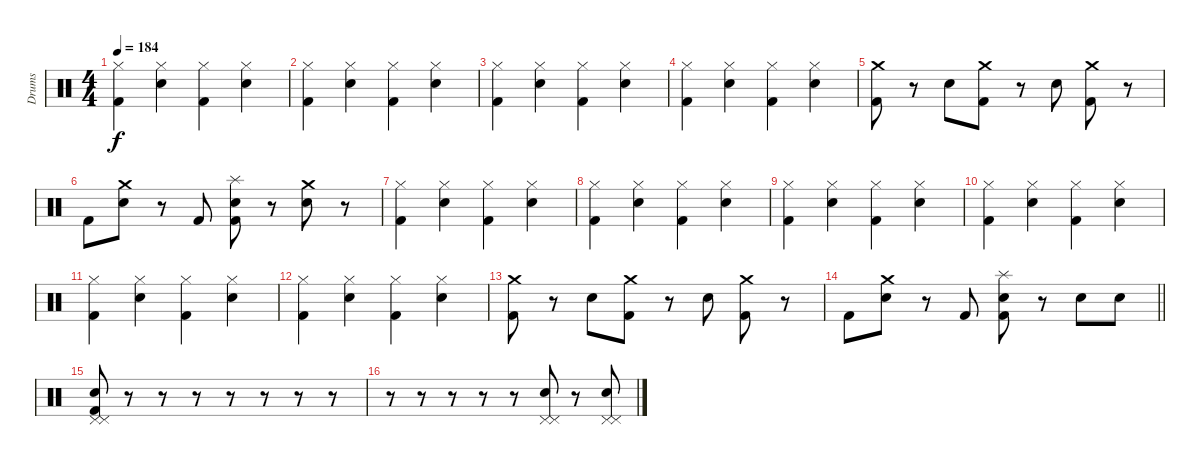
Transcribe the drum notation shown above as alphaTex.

\track ("Drums" "Drums") {instrument percussion}
\staff {score}
\articulation defaults
\ts (4 4)
\tempo 184
\clef neutral
\ks c
("Hi-Hat (closed)" "Kick (hit) 2").4{dy f} ("Hi-Hat (closed)" "Snare (hit) 2").4 ("Hi-Hat (closed)" "Kick (hit) 2").4 ("Hi-Hat (closed)" "Snare (hit) 2").4 |
("Hi-Hat (closed)" "Kick (hit) 2").4 ("Hi-Hat (closed)" "Snare (hit) 2").4 ("Hi-Hat (closed)" "Kick (hit) 2").4 ("Hi-Hat (closed)" "Snare (hit) 2").4 |
("Hi-Hat (closed)" "Kick (hit) 2").4 ("Hi-Hat (closed)" "Snare (hit) 2").4 ("Hi-Hat (closed)" "Kick (hit) 2").4 ("Hi-Hat (closed)" "Snare (hit) 2").4 |
("Hi-Hat (closed)" "Kick (hit) 2").4 ("Hi-Hat (closed)" "Snare (hit) 2").4 ("Hi-Hat (closed)" "Kick (hit) 2").4 ("Hi-Hat (closed)" "Snare (hit) 2").4 |
("Crash medium (hit)" "Kick (hit) 2").8 r.8 "Snare (hit) 2".8 ("Crash medium (hit)" "Kick (hit) 2").8 r.8 "Snare (hit) 2".8 ("Crash medium (hit)" "Kick (hit) 2").8 r.8 |
"Kick (hit) 2".8 ("Crash medium (hit)" "Snare (hit) 2").8 r.8 "Kick (hit) 2".8 ("Splash (hit)" "Snare (hit) 2" "Kick (hit) 2").8 r.8 ("Crash medium (hit)" "Snare (hit) 2").8 r.8 |
("Hi-Hat (closed)" "Kick (hit) 2").4 ("Hi-Hat (closed)" "Snare (hit) 2").4 ("Hi-Hat (closed)" "Kick (hit) 2").4 ("Hi-Hat (closed)" "Snare (hit) 2").4 |
("Hi-Hat (closed)" "Kick (hit) 2").4 ("Hi-Hat (closed)" "Snare (hit) 2").4 ("Hi-Hat (closed)" "Kick (hit) 2").4 ("Hi-Hat (closed)" "Snare (hit) 2").4 |
("Hi-Hat (closed)" "Kick (hit) 2").4 ("Hi-Hat (closed)" "Snare (hit) 2").4 ("Hi-Hat (closed)" "Kick (hit) 2").4 ("Hi-Hat (closed)" "Snare (hit) 2").4 |
("Hi-Hat (closed)" "Kick (hit) 2").4 ("Hi-Hat (closed)" "Snare (hit) 2").4 ("Hi-Hat (closed)" "Kick (hit) 2").4 ("Hi-Hat (closed)" "Snare (hit) 2").4 |
("Hi-Hat (closed)" "Kick (hit) 2").4 ("Hi-Hat (closed)" "Snare (hit) 2").4 ("Hi-Hat (closed)" "Kick (hit) 2").4 ("Hi-Hat (closed)" "Snare (hit) 2").4 |
("Hi-Hat (closed)" "Kick (hit) 2").4 ("Hi-Hat (closed)" "Snare (hit) 2").4 ("Hi-Hat (closed)" "Kick (hit) 2").4 ("Hi-Hat (closed)" "Snare (hit) 2").4 |
("Crash medium (hit)" "Kick (hit) 2").8 r.8 "Snare (hit) 2".8 ("Crash medium (hit)" "Kick (hit) 2").8 r.8 "Snare (hit) 2".8 ("Crash medium (hit)" "Kick (hit) 2").8 r.8 |
\barLineRight lightlight "Kick (hit) 2".8
("Crash medium (hit)" "Snare (hit) 2").8 r.8 "Kick (hit) 2".8 ("Splash (hit)" "Snare (hit) 2" "Kick (hit) 2").8 r.8 "Snare (hit) 2".8 "Snare (hit) 2".8 |
("Pedal Hi-Hat (hit)" "Pedal Hi-Hat (hit)" "Snare (hit) 2" "Kick (hit) 2").8 r.8 r.8 r.8 r.8 r.8 r.8 r.8 |
r.8 r.8 r.8 r.8 r.8 ("Pedal Hi-Hat (hit)" "Pedal Hi-Hat (hit)" "Snare (hit) 2").8 r.8 ("Pedal Hi-Hat (hit)" "Pedal Hi-Hat (hit)" "Snare (hit) 2").8
